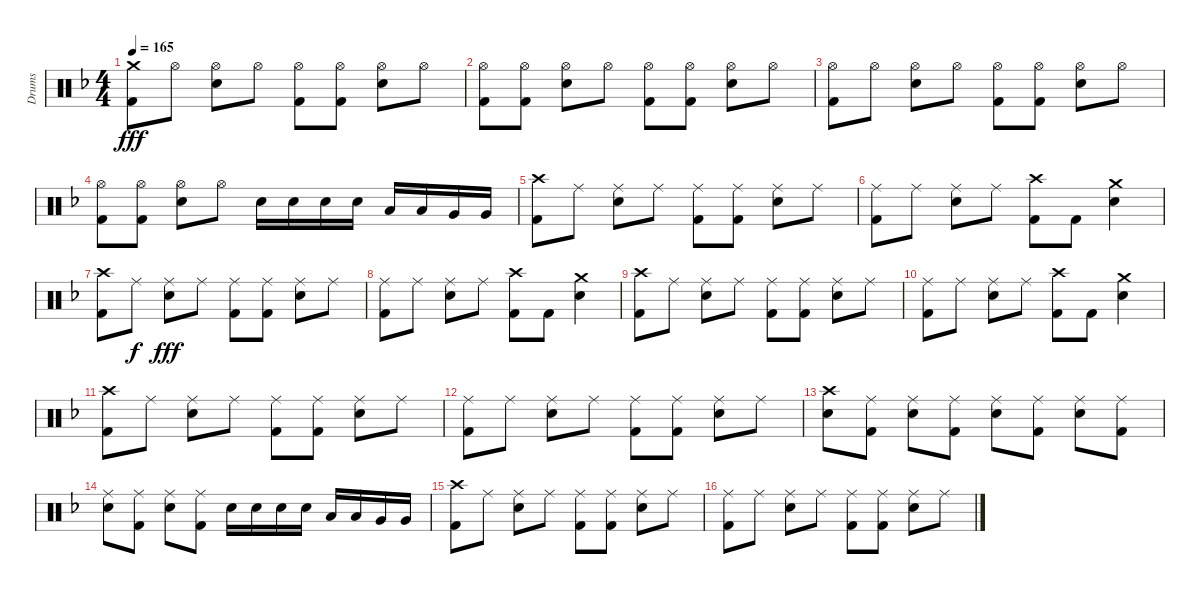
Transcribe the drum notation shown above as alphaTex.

\track ("Drums" "Drums") {instrument percussion}
\staff {score}
\articulation defaults
\ts (4 4)
\tempo 165
\clef neutral
\ks f
("Crash medium (hit)" "Kick (hit) 2").8{dy fff} "Hi-Hat (open)".8 ("Hi-Hat (open)" "Electric Snare (hit)").8 "Hi-Hat (open)".8 ("Hi-Hat (open)" "Kick (hit) 2").8 ("Hi-Hat (open)" "Kick (hit) 2").8 ("Hi-Hat (open)" "Electric Snare (hit)").8 "Hi-Hat (open)".8 |
("Hi-Hat (open)" "Kick (hit) 2").8 ("Hi-Hat (open)" "Kick (hit) 2").8 ("Hi-Hat (open)" "Electric Snare (hit)").8 "Hi-Hat (open)".8 ("Hi-Hat (open)" "Kick (hit) 2").8 ("Hi-Hat (open)" "Kick (hit) 2").8 ("Hi-Hat (open)" "Electric Snare (hit)").8 "Hi-Hat (open)".8 |
("Hi-Hat (open)" "Kick (hit) 2").8 "Hi-Hat (open)".8 ("Hi-Hat (open)" "Electric Snare (hit)").8 "Hi-Hat (open)".8 ("Hi-Hat (open)" "Kick (hit) 2").8 ("Hi-Hat (open)" "Kick (hit) 2").8 ("Hi-Hat (open)" "Electric Snare (hit)").8 "Hi-Hat (open)".8 |
("Hi-Hat (open)" "Kick (hit) 2").8 ("Hi-Hat (open)" "Kick (hit) 2").8 ("Hi-Hat (open)" "Electric Snare (hit)").8 "Hi-Hat (open)".8 "Electric Snare (hit)".16 "Electric Snare (hit)".16 "Electric Snare (hit)".16 "Electric Snare (hit)".16 "Low Tom (hit)".16 "Low Tom (hit)".16 "Very Low Tom (hit)".16 "Very Low Tom (hit)".16 |
("Crash high (hit)" "Kick (hit) 2").8 "Ride (middle)".8 ("Ride (middle)" "Electric Snare (hit)").8 "Ride (middle)".8 ("Ride (middle)" "Kick (hit) 2").8 ("Ride (middle)" "Kick (hit) 2").8 ("Ride (middle)" "Electric Snare (hit)").8 "Ride (middle)".8 |
("Ride (middle)" "Kick (hit) 2").8 "Ride (middle)".8 ("Ride (middle)" "Electric Snare (hit)").8 "Ride (middle)".8 ("Crash high (hit)" "Kick (hit) 2").8 "Kick (hit) 2".8 ("Crash medium (hit)" "Electric Snare (hit)").4 |
("Crash high (hit)" "Kick (hit) 2").8 "Ride (middle)".8{dy f} ("Ride (middle)" "Electric Snare (hit)").8{dy fff} "Ride (middle)".8 ("Ride (middle)" "Kick (hit) 2").8 ("Ride (middle)" "Kick (hit) 2").8 ("Ride (middle)" "Electric Snare (hit)").8 "Ride (middle)".8 |
("Ride (middle)" "Kick (hit) 2").8 "Ride (middle)".8 ("Ride (middle)" "Electric Snare (hit)").8 "Ride (middle)".8 ("Crash high (hit)" "Kick (hit) 2").8 "Kick (hit) 2".8 ("Crash medium (hit)" "Electric Snare (hit)").4 |
("Crash high (hit)" "Kick (hit) 2").8 "Ride (middle)".8 ("Ride (middle)" "Electric Snare (hit)").8 "Ride (middle)".8 ("Ride (middle)" "Kick (hit) 2").8 ("Ride (middle)" "Kick (hit) 2").8 ("Ride (middle)" "Electric Snare (hit)").8 "Ride (middle)".8 |
("Ride (middle)" "Kick (hit) 2").8 "Ride (middle)".8 ("Ride (middle)" "Electric Snare (hit)").8 "Ride (middle)".8 ("Crash high (hit)" "Kick (hit) 2").8 "Kick (hit) 2".8 ("Crash medium (hit)" "Electric Snare (hit)").4 |
("Crash high (hit)" "Kick (hit) 2").8 "Ride (middle)".8 ("Ride (middle)" "Electric Snare (hit)").8 "Ride (middle)".8 ("Ride (middle)" "Kick (hit) 2").8 ("Ride (middle)" "Kick (hit) 2").8 ("Ride (middle)" "Electric Snare (hit)").8 "Ride (middle)".8 |
("Ride (middle)" "Kick (hit) 2").8 "Ride (middle)".8 ("Ride (middle)" "Electric Snare (hit)").8 "Ride (middle)".8 ("Ride (middle)" "Kick (hit) 2").8 ("Ride (middle)" "Kick (hit) 2").8 ("Ride (middle)" "Electric Snare (hit)").8 "Ride (middle)".8 |
("Crash high (hit)" "Electric Snare (hit)").8 ("Ride (middle)" "Kick (hit) 2").8 ("Ride (middle)" "Electric Snare (hit)").8 ("Ride (middle)" "Kick (hit) 2").8 ("Ride (middle)" "Electric Snare (hit)").8 ("Ride (middle)" "Kick (hit) 2").8 ("Ride (middle)" "Electric Snare (hit)").8 ("Ride (middle)" "Kick (hit) 2").8 |
("Ride (middle)" "Electric Snare (hit)").8 ("Ride (middle)" "Kick (hit) 2").8 ("Ride (middle)" "Electric Snare (hit)").8 ("Ride (middle)" "Kick (hit) 2").8 "Electric Snare (hit)".16 "Electric Snare (hit)".16 "Electric Snare (hit)".16 "Electric Snare (hit)".16 "Low Tom (hit)".16 "Low Tom (hit)".16 "Very Low Tom (hit)".16 "Very Low Tom (hit)".16 |
("Crash high (hit)" "Kick (hit) 2").8 "Ride (middle)".8 ("Ride (middle)" "Electric Snare (hit)").8 "Ride (middle)".8 ("Ride (middle)" "Kick (hit) 2").8 ("Ride (middle)" "Kick (hit) 2").8 ("Ride (middle)" "Electric Snare (hit)").8 "Ride (middle)".8 |
("Ride (middle)" "Kick (hit) 2").8 "Ride (middle)".8 ("Ride (middle)" "Electric Snare (hit)").8 "Ride (middle)".8 ("Ride (middle)" "Kick (hit) 2").8 ("Ride (middle)" "Kick (hit) 2").8 ("Ride (middle)" "Electric Snare (hit)").8 "Ride (middle)".8
